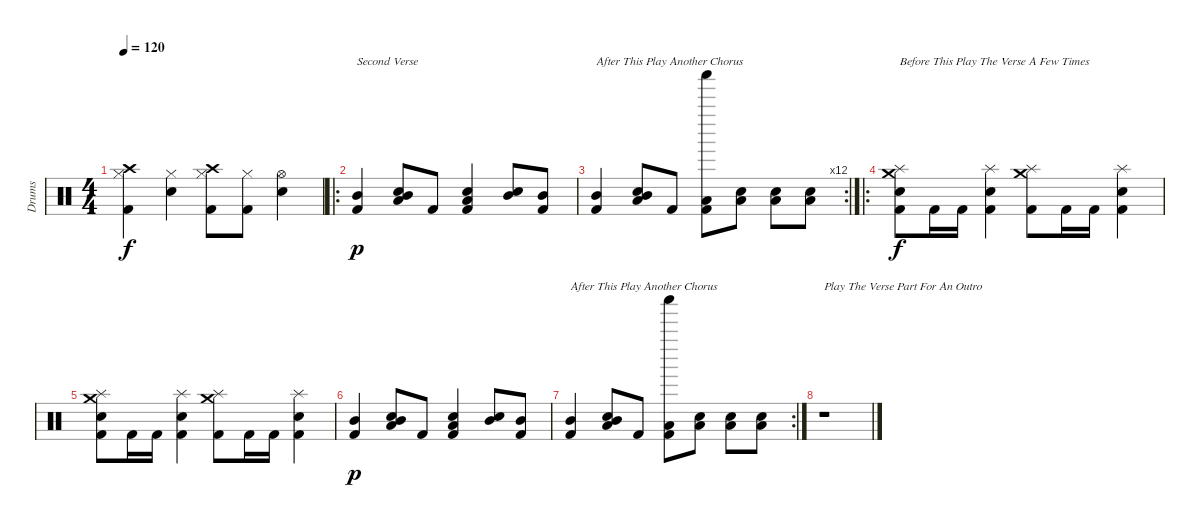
\track ("Drums" "Drums") {instrument percussion}
\staff {score}
\articulation defaults
\ts (4 4)
\tempo 120
\clef neutral
\ks c
("Crash high (hit)" "Hi-Hat (closed)" "Kick (hit) 2").4{dy f} ("Hi-Hat (closed)" "Electric Snare (hit)").4 ("Crash high (hit)" "Hi-Hat (closed)" "Kick (hit) 2").8 ("Hi-Hat (closed)" "Kick (hit) 2").8 ("Hi-Hat (open)" "Electric Snare (hit)").4 |
\ro
("Mid Tom (hit)" "Kick (hit) 2").4{txt "Second Verse" dy p} ("Low Floor Tom (hit)" "Snare (hit) 2" "Mid Tom (hit)").8 "Kick (hit) 2".8 ("Snare (hit)" "Low Floor Tom (hit)" "Kick (hit) 2").4 ("Snare (hit) 2" "Mid Tom (hit)").8 ("Mid Tom (hit)" "Kick (hit) 2").8 |
\rc 12
("Mid Tom (hit)" "Kick (hit) 2").4{txt "After This Play Another Chorus"} ("Low Floor Tom (hit)" "Snare (hit) 2" "Mid Tom (hit)").8 "Kick (hit) 2".8 ("Shaker (hit)" "Low Floor Tom (hit)" "Kick (hit) 2").8 ("Low Tom (hit)" "Electric Snare (hit)").8 ("Low Tom (hit)" "Electric Snare (hit)").8 ("Low Tom (hit)" "Electric Snare (hit)").8 |
\ro
("Splash (hit)" "Crash medium (hit)" "Electric Snare (hit)" "Kick (hit) 2").8{txt "Before This Play The Verse A Few Times" dy f} "Kick (hit) 2".16 "Kick (hit) 2".16 ("Splash (hit)" "Electric Snare (hit)" "Kick (hit) 2").4 ("Splash (hit)" "Crash medium (hit)" "Kick (hit) 2").8 "Kick (hit) 2".16 "Kick (hit) 2".16 ("Splash (hit)" "Electric Snare (hit)" "Kick (hit) 2").4 |
("Splash (hit)" "Crash medium (hit)" "Electric Snare (hit)" "Kick (hit) 2").8 "Kick (hit) 2".16 "Kick (hit) 2".16 ("Splash (hit)" "Electric Snare (hit)" "Kick (hit) 2").4 ("Splash (hit)" "Crash medium (hit)" "Kick (hit) 2").8 "Kick (hit) 2".16 "Kick (hit) 2".16 ("Splash (hit)" "Electric Snare (hit)" "Kick (hit) 2").4 |
("Mid Tom (hit)" "Kick (hit) 2").4{dy p} ("Low Floor Tom (hit)" "Snare (hit) 2" "Mid Tom (hit)").8 "Kick (hit) 2".8 ("Snare (hit)" "Low Floor Tom (hit)" "Kick (hit) 2").4 ("Snare (hit) 2" "Mid Tom (hit)").8 ("Mid Tom (hit)" "Kick (hit) 2").8 |
\rc 2
("Mid Tom (hit)" "Kick (hit) 2").4{txt "After This Play Another Chorus"} ("Low Floor Tom (hit)" "Snare (hit) 2" "Mid Tom (hit)").8 "Kick (hit) 2".8 ("Shaker (hit)" "Low Floor Tom (hit)" "Kick (hit) 2").8 ("Low Tom (hit)" "Electric Snare (hit)").8 ("Low Tom (hit)" "Electric Snare (hit)").8 ("Low Tom (hit)" "Electric Snare (hit)").8 |
r.1{txt "Play The Verse Part For An Outro"}
